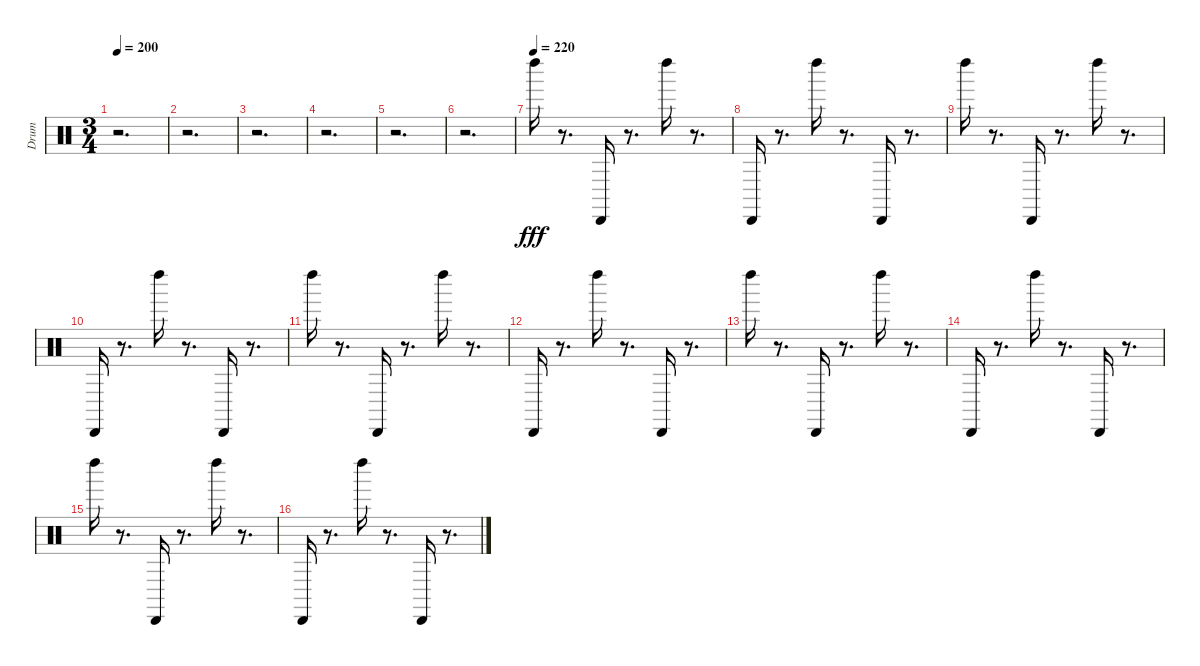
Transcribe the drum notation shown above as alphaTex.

\track ("Drum" "Drum") {instrument percussion}
\staff {score}
\articulation defaults
\ts (3 4)
\tempo 200
\clef neutral
\ks c
r.2{d dy fff} |
r.2{d} |
r.2{d} |
r.2{d} |
r.2{d} |
r.2{d} |
\tempo (220)
"Left Maraca (hit)".16 r.8{d} "Cabasa (hit)".16 r.8{d} "Left Maraca (hit)".16 r.8{d} |
"Cabasa (hit)".16 r.8{d} "Left Maraca (hit)".16 r.8{d} "Cabasa (hit)".16 r.8{d} |
"Left Maraca (hit)".16 r.8{d} "Cabasa (hit)".16 r.8{d} "Left Maraca (hit)".16 r.8{d} |
"Cabasa (hit)".16 r.8{d} "Left Maraca (hit)".16 r.8{d} "Cabasa (hit)".16 r.8{d} |
"Left Maraca (hit)".16 r.8{d} "Cabasa (hit)".16 r.8{d} "Left Maraca (hit)".16 r.8{d} |
"Cabasa (hit)".16 r.8{d} "Left Maraca (hit)".16 r.8{d} "Cabasa (hit)".16 r.8{d} |
"Left Maraca (hit)".16 r.8{d} "Cabasa (hit)".16 r.8{d} "Left Maraca (hit)".16 r.8{d} |
"Cabasa (hit)".16 r.8{d} "Left Maraca (hit)".16 r.8{d} "Cabasa (hit)".16 r.8{d} |
"Left Maraca (hit)".16 r.8{d} "Cabasa (hit)".16 r.8{d} "Left Maraca (hit)".16 r.8{d} |
"Cabasa (hit)".16 r.8{d} "Left Maraca (hit)".16 r.8{d} "Cabasa (hit)".16 r.8{d}
